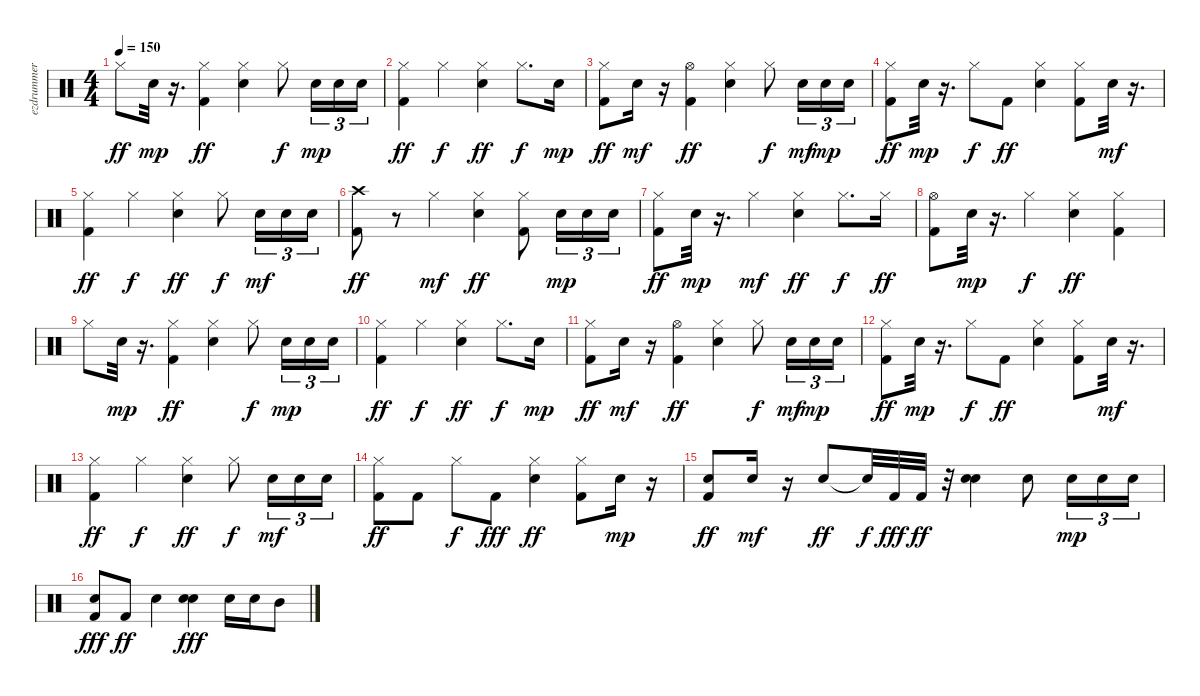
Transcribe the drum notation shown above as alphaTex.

\track ("ezdrummer 03" "ezdrummer ") {instrument percussion}
\staff {score}
\articulation defaults
\ts (4 4)
\tempo 150
\clef neutral
\ks c "Hi-Hat (closed)".8{dy ff} "Snare (hit) 2".32{dy mp}
r.16{d} ("Kick (hit) 2" "Hi-Hat (closed)").4{dy ff} ("Snare (hit) 2" "Hi-Hat (closed)").4 "Hi-Hat (closed)".8{dy f} "Snare (hit) 2".16{tu (3 2) dy mp} "Snare (hit) 2".16{tu (3 2)} "Snare (hit) 2".16{tu (3 2)} |
("Kick (hit) 2" "Hi-Hat (closed)").4{dy ff} "Hi-Hat (closed)".4{dy f} ("Snare (hit) 2" "Hi-Hat (closed)").4{dy ff} "Hi-Hat (closed)".8{d dy f} "Snare (hit) 2".16{dy mp} |
("Kick (hit) 2" "Hi-Hat (closed)").8{dy ff} "Snare (hit) 2".16{dy mf} r.16 ("Kick (hit) 2" "Hi-Hat (open)").4{dy ff} ("Snare (hit) 2" "Hi-Hat (closed)").4 "Hi-Hat (closed)".8{dy f} "Snare (hit) 2".16{tu (3 2) dy mf} "Snare (hit) 2".16{tu (3 2) dy mp} "Snare (hit) 2".16{tu (3 2)} |
("Kick (hit) 2" "Hi-Hat (closed)").8{dy ff} "Snare (hit) 2".32{dy mp} r.16{d} "Hi-Hat (closed)".8{dy f} "Kick (hit) 2".8{dy ff} ("Snare (hit) 2" "Hi-Hat (closed)").4 ("Kick (hit) 2" "Hi-Hat (closed)").8 "Snare (hit) 2".32{dy mf} r.16{d} |
("Kick (hit) 2" "Hi-Hat (closed)").4{dy ff} "Hi-Hat (closed)".4{dy f} ("Snare (hit) 2" "Hi-Hat (closed)").4{dy ff} "Hi-Hat (closed)".8{dy f} "Snare (hit) 2".16{tu (3 2) dy mf} "Snare (hit) 2".16{tu (3 2)} "Snare (hit) 2".16{tu (3 2)} |
("Kick (hit) 2" "Crash high (hit)").8{dy ff} r.8 "Hi-Hat (closed)".4{dy mf} ("Snare (hit) 2" "Hi-Hat (closed)").4{dy ff} ("Kick (hit) 2" "Hi-Hat (closed)").8 "Snare (hit) 2".16{tu (3 2) dy mp} "Snare (hit) 2".16{tu (3 2)} "Snare (hit) 2".16{tu (3 2)} |
("Kick (hit) 2" "Hi-Hat (closed)").8{dy ff} "Snare (hit) 2".32{dy mp} r.16{d} "Hi-Hat (closed)".4{dy mf} ("Snare (hit) 2" "Hi-Hat (closed)").4{dy ff} "Hi-Hat (closed)".8{d dy f} "Hi-Hat (closed)".16{dy ff} |
("Kick (hit) 2" "Hi-Hat (open)").8 "Snare (hit) 2".32{dy mp} r.16{d} "Hi-Hat (closed)".4{dy f} ("Snare (hit) 2" "Hi-Hat (closed)").4{dy ff} ("Kick (hit) 2" "Hi-Hat (closed)").4 |
"Hi-Hat (closed)".8 "Snare (hit) 2".32{dy mp} r.16{d} ("Kick (hit) 2" "Hi-Hat (closed)").4{dy ff} ("Snare (hit) 2" "Hi-Hat (closed)").4 "Hi-Hat (closed)".8{dy f} "Snare (hit) 2".16{tu (3 2) dy mp} "Snare (hit) 2".16{tu (3 2)} "Snare (hit) 2".16{tu (3 2)} |
("Kick (hit) 2" "Hi-Hat (closed)").4{dy ff} "Hi-Hat (closed)".4{dy f} ("Snare (hit) 2" "Hi-Hat (closed)").4{dy ff} "Hi-Hat (closed)".8{d dy f} "Snare (hit) 2".16{dy mp} |
("Kick (hit) 2" "Hi-Hat (closed)").8{dy ff} "Snare (hit) 2".16{dy mf} r.16 ("Kick (hit) 2" "Hi-Hat (open)").4{dy ff} ("Snare (hit) 2" "Hi-Hat (closed)").4 "Hi-Hat (closed)".8{dy f} "Snare (hit) 2".16{tu (3 2) dy mf} "Snare (hit) 2".16{tu (3 2) dy mp} "Snare (hit) 2".16{tu (3 2)} |
("Kick (hit) 2" "Hi-Hat (closed)").8{dy ff} "Snare (hit) 2".32{dy mp} r.16{d} "Hi-Hat (closed)".8{dy f} "Kick (hit) 2".8{dy ff} ("Snare (hit) 2" "Hi-Hat (closed)").4 ("Kick (hit) 2" "Hi-Hat (closed)").8 "Snare (hit) 2".32{dy mf} r.16{d} |
("Kick (hit) 2" "Hi-Hat (closed)").4{dy ff} "Hi-Hat (closed)".4{dy f} ("Snare (hit) 2" "Hi-Hat (closed)").4{dy ff} "Hi-Hat (closed)".8{dy f} "Snare (hit) 2".16{tu (3 2) dy mf} "Snare (hit) 2".16{tu (3 2)} "Snare (hit) 2".16{tu (3 2)} |
("Kick (hit) 2" "Hi-Hat (closed)").8{dy ff} "Kick (hit) 2".8 "Hi-Hat (closed)".8{dy f} "Kick (hit) 2".8{dy fff} ("Snare (hit) 2" "Hi-Hat (closed)").4{dy ff} ("Kick (hit) 2" "Hi-Hat (closed)").8 "Snare (hit) 2".16{dy mp} r.16 |
("Kick (hit) 2" "Snare (hit)").8{dy ff} "Snare (hit) 2".16{dy mf} r.16 "Snare (hit)".8{dy ff} "Snare (hit)"{t}.32{dy f} "Kick (hit) 2".32{dy fff} "Kick (hit) 2".32{dy ff} r.32 ("Snare (hit) 2" "Snare (hit)").4 "Snare (hit)".8 "Snare (hit) 2".16{tu (3 2) dy mp} "Snare (hit) 2".16{tu (3 2)} "Snare (hit) 2".16{tu (3 2)} |
("Kick (hit) 2" "Snare (hit)").8{dy fff} "Kick (hit) 2".8{dy ff} "Snare (hit)".4 ("Snare (hit) 2" "Snare (hit)").4{dy fff} "Snare (hit) 2".16 "Snare (hit) 2".16 "Mid Tom (hit)".8
